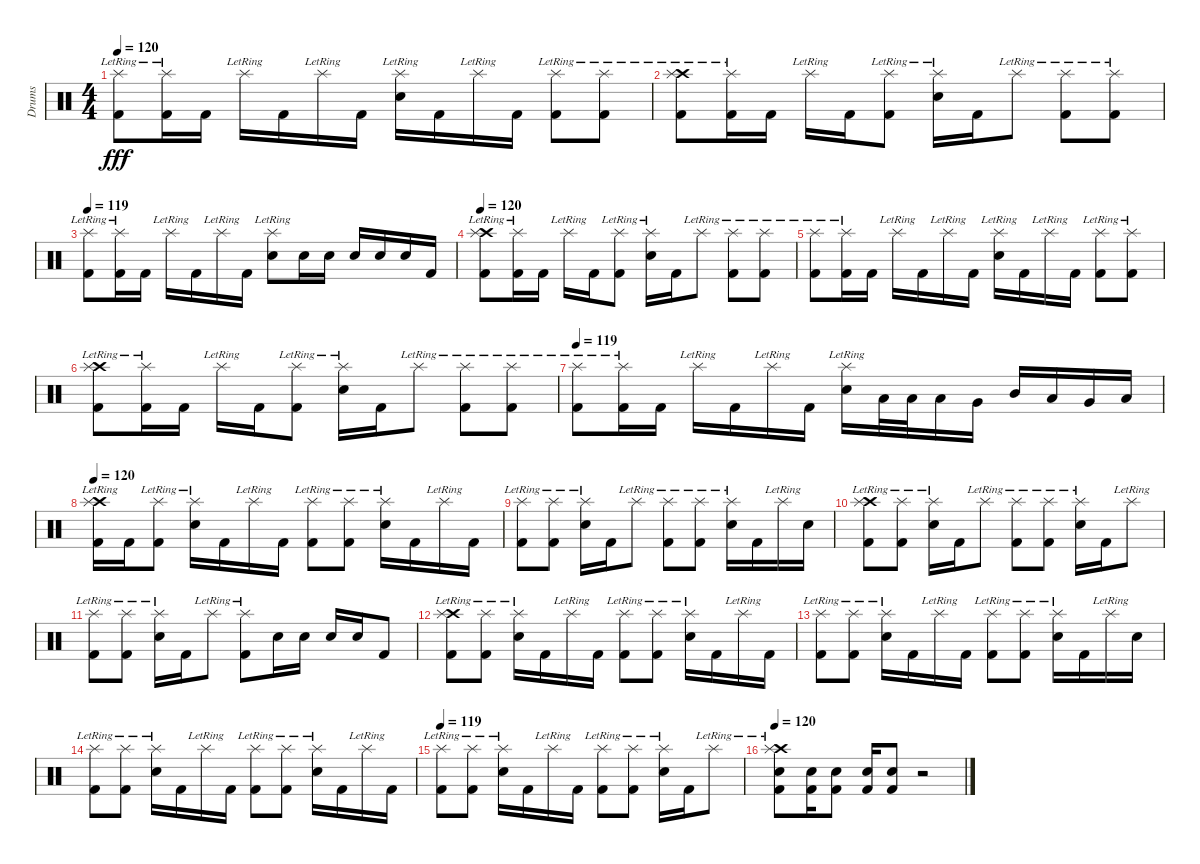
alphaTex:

\track ("Drums" "Drums") {instrument percussion}
\staff {score}
\articulation defaults
\ts (4 4)
\tempo 120
\clef neutral
\ks c
("Splash (hit)"{lr} "Kick (hit) 2").8{dy fff} ("Splash (hit)"{lr} "Kick (hit) 2").16 "Kick (hit) 2".16 "Splash (hit)"{lr}.16 "Kick (hit) 2".16 "Splash (hit)"{lr}.16 "Kick (hit) 2".16 ("Splash (hit)"{lr} "Electric Snare (hit)").16 "Kick (hit) 2".16 "Splash (hit)"{lr}.16 "Kick (hit) 2".16 ("Splash (hit)"{lr} "Kick (hit) 2").8 ("Splash (hit)"{lr} "Kick (hit) 2").8 |
("Crash high (hit)"{lr} "Splash (hit)"{lr} "Kick (hit) 2").8 ("Splash (hit)"{lr} "Kick (hit) 2").16 "Kick (hit) 2".16 "Splash (hit)"{lr}.16 "Kick (hit) 2".16 ("Splash (hit)"{lr} "Kick (hit) 2").8 ("Splash (hit)"{lr} "Electric Snare (hit)").16 "Kick (hit) 2".16 "Splash (hit)"{lr}.8 ("Splash (hit)"{lr} "Kick (hit) 2").8 ("Splash (hit)"{lr} "Kick (hit) 2").8 |
\tempo 119
("Splash (hit)"{lr} "Kick (hit) 2").8 ("Splash (hit)"{lr} "Kick (hit) 2").16 "Kick (hit) 2".16 "Splash (hit)"{lr}.16 "Kick (hit) 2".16 "Splash (hit)"{lr}.16 "Kick (hit) 2".16 ("Splash (hit)"{lr} "Electric Snare (hit)").8 "Electric Snare (hit)".16 "Electric Snare (hit)".16 "Electric Snare (hit)".16 "Electric Snare (hit)".16 "Electric Snare (hit)".16 "Kick (hit) 2".16 |
\tempo 120
("Crash high (hit)"{lr} "Splash (hit)"{lr} "Kick (hit) 2").8 ("Splash (hit)"{lr} "Kick (hit) 2").16 "Kick (hit) 2".16 "Splash (hit)"{lr}.16 "Kick (hit) 2".16 ("Splash (hit)"{lr} "Kick (hit) 2").8 ("Splash (hit)"{lr} "Electric Snare (hit)").16 "Kick (hit) 2".16 "Splash (hit)"{lr}.8 ("Splash (hit)"{lr} "Kick (hit) 2").8 ("Splash (hit)"{lr} "Kick (hit) 2").8 |
("Splash (hit)"{lr} "Kick (hit) 2").8 ("Splash (hit)"{lr} "Kick (hit) 2").16 "Kick (hit) 2".16 "Splash (hit)"{lr}.16 "Kick (hit) 2".16 "Splash (hit)"{lr}.16 "Kick (hit) 2".16 ("Splash (hit)"{lr} "Electric Snare (hit)").16 "Kick (hit) 2".16 "Splash (hit)"{lr}.16 "Kick (hit) 2".16 ("Splash (hit)"{lr} "Kick (hit) 2").8 ("Splash (hit)"{lr} "Kick (hit) 2").8 |
("Crash high (hit)"{lr} "Splash (hit)"{lr} "Kick (hit) 2").8 ("Splash (hit)"{lr} "Kick (hit) 2").16 "Kick (hit) 2".16 "Splash (hit)"{lr}.16 "Kick (hit) 2".16 ("Splash (hit)"{lr} "Kick (hit) 2").8 ("Splash (hit)"{lr} "Electric Snare (hit)").16 "Kick (hit) 2".16 "Splash (hit)"{lr}.8 ("Splash (hit)"{lr} "Kick (hit) 2").8 ("Splash (hit)"{lr} "Kick (hit) 2").8 |
\tempo 119
("Splash (hit)"{lr} "Kick (hit) 2").8 ("Splash (hit)"{lr} "Kick (hit) 2").16 "Kick (hit) 2".16 "Splash (hit)"{lr}.16 "Kick (hit) 2".16 "Splash (hit)"{lr}.16 "Kick (hit) 2".16 ("Splash (hit)"{lr} "Electric Snare (hit)").16 "Low Tom (hit)".32 "Low Tom (hit)".32 "Low Tom (hit)".16 "Very Low Tom (hit)".16 "Mid Tom (hit)".16 "Low Tom (hit)".16 "Very Low Tom (hit)".16 "Low Floor Tom (hit)".16 |
\tempo 120
("Crash high (hit)"{lr} "Splash (hit)"{lr} "Kick (hit) 2").16 "Kick (hit) 2".16 ("Splash (hit)"{lr} "Kick (hit) 2").8 ("Splash (hit)"{lr} "Electric Snare (hit)").16 "Kick (hit) 2".16 "Splash (hit)"{lr}.16 "Kick (hit) 2".16 ("Splash (hit)"{lr} "Kick (hit) 2").8 ("Splash (hit)"{lr} "Kick (hit) 2").8 ("Splash (hit)"{lr} "Electric Snare (hit)").16 "Kick (hit) 2".16 "Splash (hit)"{lr}.16 "Kick (hit) 2".16 |
("Splash (hit)"{lr} "Kick (hit) 2").8 ("Splash (hit)"{lr} "Kick (hit) 2").8 ("Splash (hit)"{lr} "Electric Snare (hit)").16 "Kick (hit) 2".16 "Splash (hit)"{lr}.8 ("Splash (hit)"{lr} "Kick (hit) 2").8 ("Splash (hit)"{lr} "Kick (hit) 2").8 ("Splash (hit)"{lr} "Electric Snare (hit)").16 "Kick (hit) 2".16 "Splash (hit)"{lr}.16 "Electric Snare (hit)".16 |
("Crash high (hit)"{lr} "Splash (hit)"{lr} "Kick (hit) 2").8 ("Splash (hit)"{lr} "Kick (hit) 2").8 ("Splash (hit)"{lr} "Electric Snare (hit)").16 "Kick (hit) 2".16 "Splash (hit)"{lr}.8 ("Splash (hit)"{lr} "Kick (hit) 2").8 ("Splash (hit)"{lr} "Kick (hit) 2").8 ("Splash (hit)"{lr} "Electric Snare (hit)").16 "Kick (hit) 2".16 "Splash (hit)"{lr}.8 |
("Splash (hit)"{lr} "Kick (hit) 2").8 ("Splash (hit)"{lr} "Kick (hit) 2").8 ("Splash (hit)"{lr} "Electric Snare (hit)").16 "Kick (hit) 2".16 "Splash (hit)"{lr}.8 ("Splash (hit)"{lr} "Kick (hit) 2").8 "Electric Snare (hit)".16 "Electric Snare (hit)".16 "Electric Snare (hit)".16 "Electric Snare (hit)".16 "Kick (hit) 2".8 |
("Crash high (hit)"{lr} "Splash (hit)"{lr} "Kick (hit) 2").8 ("Splash (hit)"{lr} "Kick (hit) 2").8 ("Splash (hit)"{lr} "Electric Snare (hit)").16 "Kick (hit) 2".16 "Splash (hit)"{lr}.16 "Kick (hit) 2".16 ("Splash (hit)"{lr} "Kick (hit) 2").8 ("Splash (hit)"{lr} "Kick (hit) 2").8 ("Splash (hit)"{lr} "Electric Snare (hit)").16 "Kick (hit) 2".16 "Splash (hit)"{lr}.16 "Kick (hit) 2".16 |
("Splash (hit)"{lr} "Kick (hit) 2").8 ("Splash (hit)"{lr} "Kick (hit) 2").8 ("Splash (hit)"{lr} "Electric Snare (hit)").16 "Kick (hit) 2".16 "Splash (hit)"{lr}.16 "Kick (hit) 2".16 ("Splash (hit)"{lr} "Kick (hit) 2").8 ("Splash (hit)"{lr} "Kick (hit) 2").8 ("Splash (hit)"{lr} "Electric Snare (hit)").16 "Kick (hit) 2".16 "Splash (hit)"{lr}.16 "Electric Snare (hit)".16 |
("Splash (hit)"{lr} "Kick (hit) 2").8 ("Splash (hit)"{lr} "Kick (hit) 2").8 ("Splash (hit)"{lr} "Electric Snare (hit)").16 "Kick (hit) 2".16 "Splash (hit)"{lr}.16 "Kick (hit) 2".16 ("Splash (hit)"{lr} "Kick (hit) 2").8 ("Splash (hit)"{lr} "Kick (hit) 2").8 ("Splash (hit)"{lr} "Electric Snare (hit)").16 "Kick (hit) 2".16 "Splash (hit)"{lr}.16 "Kick (hit) 2".16 |
\tempo 119
("Splash (hit)"{lr} "Kick (hit) 2").8 ("Splash (hit)"{lr} "Kick (hit) 2").8 ("Splash (hit)"{lr} "Electric Snare (hit)").16 "Kick (hit) 2".16 "Splash (hit)"{lr}.16 "Kick (hit) 2".16 ("Splash (hit)"{lr} "Kick (hit) 2").8 ("Splash (hit)"{lr} "Kick (hit) 2").8 ("Splash (hit)"{lr} "Electric Snare (hit)").16 "Kick (hit) 2".16 "Splash (hit)"{lr}.8 |
\tempo 120
("Crash high (hit)"{lr} "Splash (hit)"{lr} "Electric Snare (hit)" "Kick (hit) 2").8 ("Electric Snare (hit)" "Kick (hit) 2").16 ("Electric Snare (hit)" "Kick (hit) 2").8 ("Electric Snare (hit)" "Kick (hit) 2").16 ("Electric Snare (hit)" "Kick (hit) 2").8 r.2
